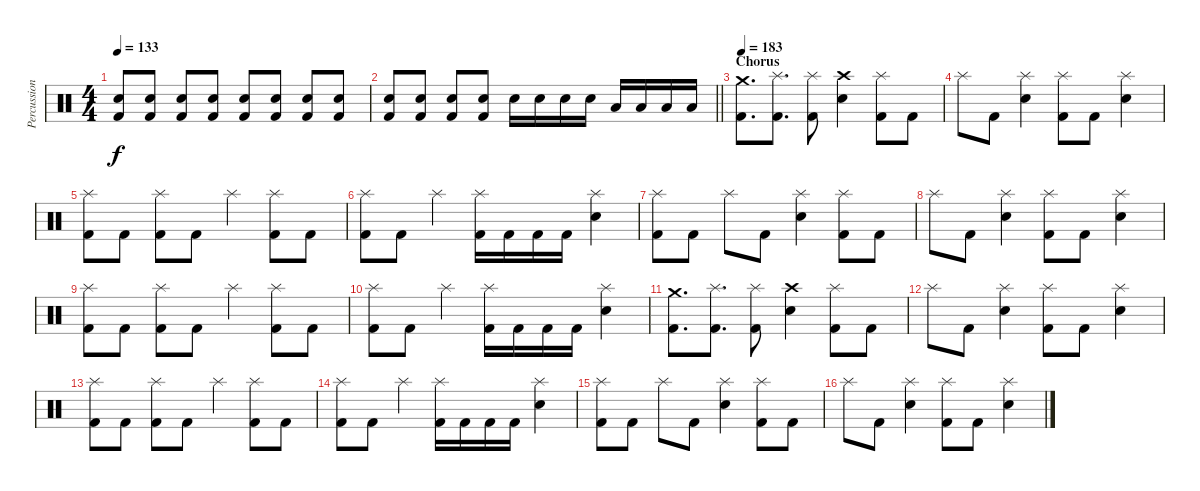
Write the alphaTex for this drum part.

\track ("Percussion" "Percussion") {instrument percussion}
\staff {score}
\articulation defaults
\ts (4 4)
\tempo 133
\clef neutral
\ks c
("Electric Snare (hit)" "Kick (hit) 2").8{dy f} ("Electric Snare (hit)" "Kick (hit) 2").8 ("Electric Snare (hit)" "Kick (hit) 2").8 ("Electric Snare (hit)" "Kick (hit) 2").8 ("Electric Snare (hit)" "Kick (hit) 2").8 ("Electric Snare (hit)" "Kick (hit) 2").8 ("Electric Snare (hit)" "Kick (hit) 2").8 ("Electric Snare (hit)" "Kick (hit) 2").8 |
\barLineRight lightlight
("Electric Snare (hit)" "Kick (hit) 2").8 ("Electric Snare (hit)" "Kick (hit) 2").8 ("Electric Snare (hit)" "Kick (hit) 2").8 ("Electric Snare (hit)" "Kick (hit) 2").8 "Electric Snare (hit)".16 "Electric Snare (hit)".16 "Electric Snare (hit)".16 "Electric Snare (hit)".16 "Low Tom (hit)".16 "Low Tom (hit)".16 "Low Tom (hit)".16 "Low Tom (hit)".16 |
\section ("" "Chorus")
\tempo 183
("Crash medium (hit)" "Kick (hit) 2").8{d volume 16} ("Splash (hit)" "Kick (hit) 2").8{d} ("Splash (hit)" "Kick (hit) 2").8 ("Crash high (hit)" "Electric Snare (hit)").4 ("Splash (hit)" "Kick (hit) 2").8 "Kick (hit) 2".8 |
"Splash (hit)".8 "Kick (hit) 2".8 ("Splash (hit)" "Electric Snare (hit)").4 ("Splash (hit)" "Kick (hit) 2").8 "Kick (hit) 2".8 ("Splash (hit)" "Electric Snare (hit)").4 |
("Splash (hit)" "Kick (hit) 2").8 "Kick (hit) 2".8 ("Splash (hit)" "Kick (hit) 2").8 "Kick (hit) 2".8 "Splash (hit)".4 ("Splash (hit)" "Kick (hit) 2").8 "Kick (hit) 2".8 |
("Splash (hit)" "Kick (hit) 2").8 "Kick (hit) 2".8 "Splash (hit)".4 ("Splash (hit)" "Kick (hit) 2").16 "Kick (hit) 2".16 "Kick (hit) 2".16 "Kick (hit) 2".16 ("Splash (hit)" "Electric Snare (hit)").4 |
("Splash (hit)" "Kick (hit) 2").8 "Kick (hit) 2".8 "Splash (hit)".8 "Kick (hit) 2".8 ("Splash (hit)" "Electric Snare (hit)").4 ("Splash (hit)" "Kick (hit) 2").8 "Kick (hit) 2".8 |
"Splash (hit)".8 "Kick (hit) 2".8 ("Splash (hit)" "Electric Snare (hit)").4 ("Splash (hit)" "Kick (hit) 2").8 "Kick (hit) 2".8 ("Splash (hit)" "Electric Snare (hit)").4 |
("Splash (hit)" "Kick (hit) 2").8 "Kick (hit) 2".8 ("Splash (hit)" "Kick (hit) 2").8 "Kick (hit) 2".8 "Splash (hit)".4 ("Splash (hit)" "Kick (hit) 2").8 "Kick (hit) 2".8 |
("Splash (hit)" "Kick (hit) 2").8 "Kick (hit) 2".8 "Splash (hit)".4 ("Splash (hit)" "Kick (hit) 2").16 "Kick (hit) 2".16 "Kick (hit) 2".16 "Kick (hit) 2".16 ("Splash (hit)" "Electric Snare (hit)").4 |
("Crash medium (hit)" "Kick (hit) 2").8{d} ("Splash (hit)" "Kick (hit) 2").8{d} ("Splash (hit)" "Kick (hit) 2").8 ("Crash high (hit)" "Electric Snare (hit)").4 ("Splash (hit)" "Kick (hit) 2").8 "Kick (hit) 2".8 |
"Splash (hit)".8 "Kick (hit) 2".8 ("Splash (hit)" "Electric Snare (hit)").4 ("Splash (hit)" "Kick (hit) 2").8 "Kick (hit) 2".8 ("Splash (hit)" "Electric Snare (hit)").4 |
("Splash (hit)" "Kick (hit) 2").8 "Kick (hit) 2".8 ("Splash (hit)" "Kick (hit) 2").8 "Kick (hit) 2".8 "Splash (hit)".4 ("Splash (hit)" "Kick (hit) 2").8 "Kick (hit) 2".8 |
("Splash (hit)" "Kick (hit) 2").8 "Kick (hit) 2".8 "Splash (hit)".4 ("Splash (hit)" "Kick (hit) 2").16 "Kick (hit) 2".16 "Kick (hit) 2".16 "Kick (hit) 2".16 ("Splash (hit)" "Electric Snare (hit)").4 |
("Splash (hit)" "Kick (hit) 2").8 "Kick (hit) 2".8 "Splash (hit)".8 "Kick (hit) 2".8 ("Splash (hit)" "Electric Snare (hit)").4 ("Splash (hit)" "Kick (hit) 2").8 "Kick (hit) 2".8 |
"Splash (hit)".8 "Kick (hit) 2".8 ("Splash (hit)" "Electric Snare (hit)").4 ("Splash (hit)" "Kick (hit) 2").8 "Kick (hit) 2".8 ("Splash (hit)" "Electric Snare (hit)").4
